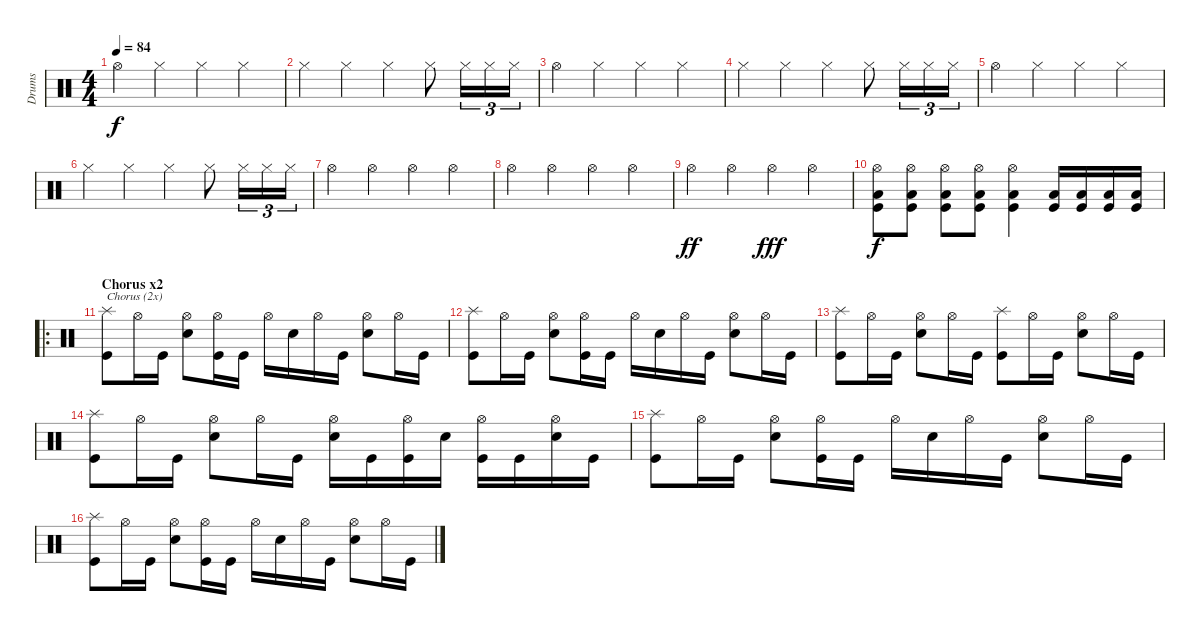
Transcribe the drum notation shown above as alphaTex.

\track ("Drums" "Drums") {instrument percussion}
\staff {score}
\articulation defaults
\ts (4 4)
\tempo 84
\clef neutral
\ks c "Hi-Hat (open)".4{dy f} "Hi-Hat (closed)".4 "Hi-Hat (closed)".4 "Hi-Hat (closed)".4
|
"Hi-Hat (closed)".4 "Hi-Hat (closed)".4 "Hi-Hat (closed)".4 "Hi-Hat (closed)".8 "Hi-Hat (closed)".16{tu (3 2)} "Hi-Hat (closed)".16{tu (3 2)} "Hi-Hat (closed)".16{tu (3 2)} |
"Hi-Hat (open)".4 "Hi-Hat (closed)".4 "Hi-Hat (closed)".4 "Hi-Hat (closed)".4 |
"Hi-Hat (closed)".4 "Hi-Hat (closed)".4 "Hi-Hat (closed)".4 "Hi-Hat (closed)".8 "Hi-Hat (closed)".16{tu (3 2)} "Hi-Hat (closed)".16{tu (3 2)} "Hi-Hat (closed)".16{tu (3 2)} |
"Hi-Hat (open)".4 "Hi-Hat (closed)".4 "Hi-Hat (closed)".4 "Hi-Hat (closed)".4 |
"Hi-Hat (closed)".4 "Hi-Hat (closed)".4 "Hi-Hat (closed)".4 "Hi-Hat (closed)".8 "Hi-Hat (closed)".16{tu (3 2)} "Hi-Hat (closed)".16{tu (3 2)} "Hi-Hat (closed)".16{tu (3 2)} |
"Hi-Hat (open)".4 "Hi-Hat (open)".4 "Hi-Hat (open)".4 "Hi-Hat (open)".4 |
"Hi-Hat (open)".4 "Hi-Hat (open)".4 "Hi-Hat (open)".4 "Hi-Hat (open)".4 |
"Hi-Hat (open)".4{dy ff} "Hi-Hat (open)".4 "Hi-Hat (open)".4{dy fff} "Hi-Hat (open)".4 |
("Hi-Hat (open)" "Low Floor Tom (hit)" "Kick (hit)").8{dy f} ("Hi-Hat (open)" "Low Floor Tom (hit)" "Kick (hit)").8 ("Hi-Hat (open)" "Low Floor Tom (hit)" "Kick (hit)").8 ("Hi-Hat (open)" "Low Floor Tom (hit)" "Kick (hit)").8 ("Hi-Hat (open)" "Low Floor Tom (hit)" "Kick (hit)").4 ("Low Floor Tom (hit)" "Kick (hit)").16 ("Low Floor Tom (hit)" "Kick (hit)").16 ("Low Floor Tom (hit)" "Kick (hit)").16 ("Low Floor Tom (hit)" "Kick (hit)").16 |
\ro
\section ("" "Chorus x2")
("Splash (hit)" "Kick (hit)").8{txt "Chorus (2x)"} "Hi-Hat (open)".16 "Kick (hit)".16 ("Hi-Hat (open)" "Snare (hit) 2").8 ("Hi-Hat (open)" "Kick (hit)").16 "Kick (hit)".16 "Hi-Hat (open)".16 "Snare (hit) 2".16 "Hi-Hat (open)".16 "Kick (hit)".16 ("Hi-Hat (open)" "Snare (hit) 2").8 "Hi-Hat (open)".16 "Kick (hit)".16 |
("Splash (hit)" "Kick (hit)").8 "Hi-Hat (open)".16 "Kick (hit)".16 ("Hi-Hat (open)" "Snare (hit) 2").8 ("Hi-Hat (open)" "Kick (hit)").16 "Kick (hit)".16 "Hi-Hat (open)".16 "Snare (hit) 2".16 "Hi-Hat (open)".16 "Kick (hit)".16 ("Hi-Hat (open)" "Snare (hit) 2").8 "Hi-Hat (open)".16 "Kick (hit)".16 |
("Splash (hit)" "Kick (hit)").8 "Hi-Hat (open)".16 "Kick (hit)".16 ("Hi-Hat (open)" "Snare (hit) 2").8 "Hi-Hat (open)".16 "Kick (hit)".16 ("Splash (hit)" "Kick (hit)").8 "Hi-Hat (open)".16 "Kick (hit)".16 ("Hi-Hat (open)" "Snare (hit) 2").8 "Hi-Hat (open)".16 "Kick (hit)".16 |
("Splash (hit)" "Kick (hit)").8 "Hi-Hat (open)".16 "Kick (hit)".16 ("Hi-Hat (open)" "Snare (hit) 2").8 "Hi-Hat (open)".16 "Kick (hit)".16 ("Hi-Hat (open)" "Snare (hit) 2").16 "Kick (hit)".16 ("Hi-Hat (open)" "Kick (hit)").16 "Snare (hit) 2".16 ("Hi-Hat (open)" "Kick (hit)").16 "Kick (hit)".16 ("Hi-Hat (open)" "Snare (hit) 2").16 "Kick (hit)".16 |
("Splash (hit)" "Kick (hit)").8 "Hi-Hat (open)".16 "Kick (hit)".16 ("Hi-Hat (open)" "Snare (hit) 2").8 ("Hi-Hat (open)" "Kick (hit)").16 "Kick (hit)".16 "Hi-Hat (open)".16 "Snare (hit) 2".16 "Hi-Hat (open)".16 "Kick (hit)".16 ("Hi-Hat (open)" "Snare (hit) 2").8 "Hi-Hat (open)".16 "Kick (hit)".16 |
("Splash (hit)" "Kick (hit)").8 "Hi-Hat (open)".16 "Kick (hit)".16 ("Hi-Hat (open)" "Snare (hit) 2").8 ("Hi-Hat (open)" "Kick (hit)").16 "Kick (hit)".16 "Hi-Hat (open)".16 "Snare (hit) 2".16 "Hi-Hat (open)".16 "Kick (hit)".16 ("Hi-Hat (open)" "Snare (hit) 2").8 "Hi-Hat (open)".16 "Kick (hit)".16
